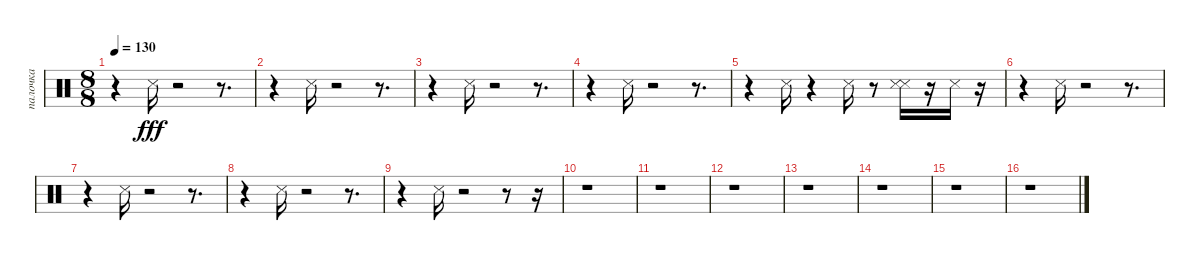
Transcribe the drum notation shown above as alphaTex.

\track ("палочка" "палочка") {instrument percussion}
\staff {score}
\articulation defaults
\ts (8 8)
\tempo 130
\clef neutral
\ks c
r.4{dy fff} "Snare (side stick) 3".16 r.2 r.8{d} |
r.4 "Snare (side stick) 3".16 r.2 r.8{d} |
r.4 "Snare (side stick) 3".16 r.2 r.8{d} |
r.4 "Snare (side stick) 3".16 r.2 r.8{d} |
r.4 "Snare (side stick) 3".16 r.4 "Snare (side stick) 3".16 r.8 ("Snare (side stick) 3" "Snare (side stick) 3").16 r.16 "Snare (side stick) 3".16 r.16 |
r.4 "Snare (side stick) 3".16 r.2 r.8{d} |
r.4 "Snare (side stick) 3".16 r.2 r.8{d} |
r.4 "Snare (side stick) 3".16 r.2 r.8{d} |
r.4 "Snare (side stick) 3".16 r.2 r.8 r.16 |
r.1 |
r.1 |
r.1 |
r.1 |
r.1 |
r.1 |
r.1
